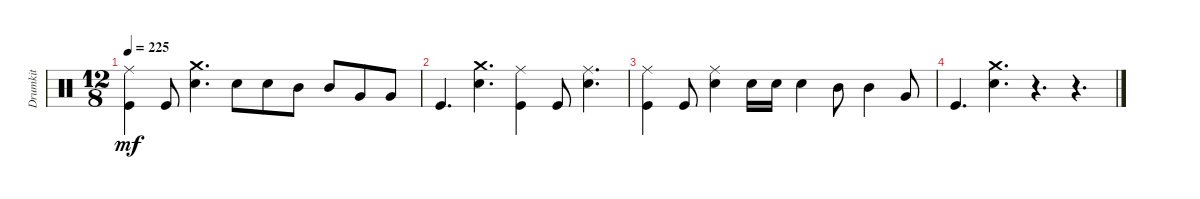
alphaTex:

\track ("Drumkit" "Drumkit") {instrument percussion}
\staff {score}
\articulation defaults
\ts (12 8)
\tempo 225
\clef neutral
\ks c
("Kick (hit)" "Ride (middle)").4{dy mf} "Kick (hit)".8 ("Snare (hit) 2" "Crash medium (hit)").4{d} "Snare (hit) 2".8 "Snare (hit) 2".8 "Mid Tom (hit)".8 "Mid Tom (hit)".8 "Very Low Tom (hit)".8 "Very Low Tom (hit)".8 |
"Kick (hit)".4{d} ("Snare (hit) 2" "Crash medium (hit)").4{d} ("Kick (hit)" "Ride (middle)").4 "Kick (hit)".8 ("Snare (hit) 2" "Ride (middle)").4{d} |
("Kick (hit)" "Ride (middle)").4 "Kick (hit)".8 ("Snare (hit) 2" "Ride (middle)").4 "Snare (hit) 2".16 "Snare (hit) 2".16 "Snare (hit) 2".4 "Mid Tom (hit)".8 "Mid Tom (hit)".4 "Very Low Tom (hit)".8 |
"Kick (hit)".4{d} ("Snare (hit) 2" "Crash medium (hit)").4{d} r.4{d} r.4{d}
